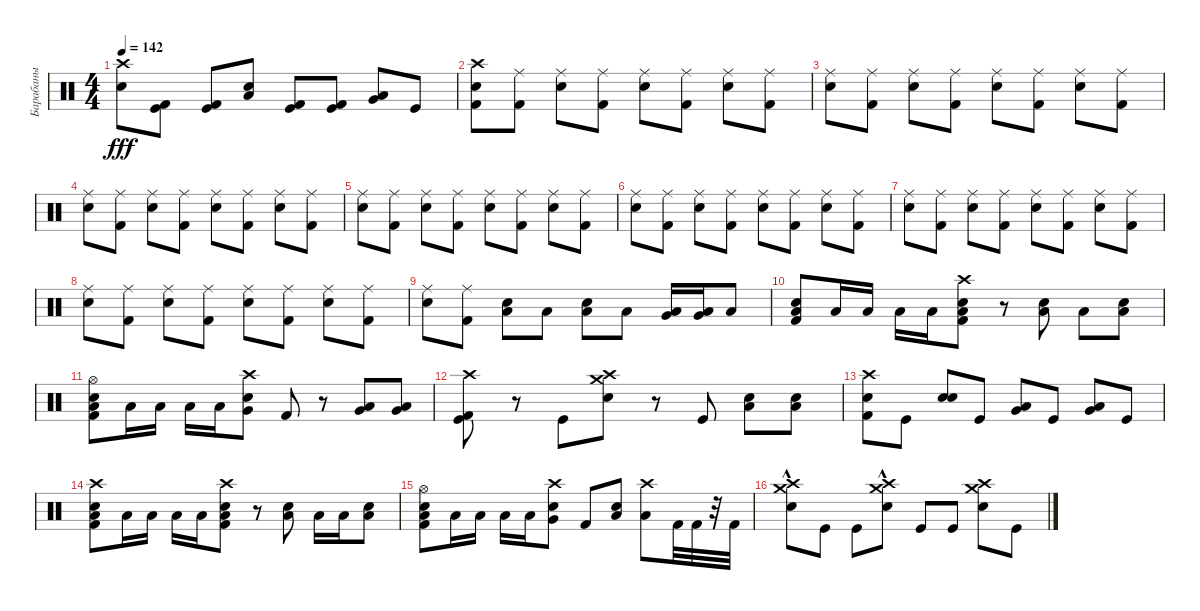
\track ("Барабаны" "Барабаны") {instrument percussion}
\staff {score}
\articulation defaults
\ts (4 4)
\tempo 142
\clef neutral
\ks c
("Crash high (hit)" "Snare (hit) 2").8{dy fff} ("Kick (hit) 2" "Kick (hit)").8 ("Kick (hit) 2" "Kick (hit)").8 ("Low Tom (hit)" "Electric Snare (hit)").8 ("Kick (hit)" "Kick (hit) 2").8 ("Kick (hit)" "Kick (hit) 2").8 ("Very Low Tom (hit)" "Low Tom (hit)").8 "Kick (hit)".8 |
("Snare (hit) 2" "Crash high (hit)" "Kick (hit) 2").8 ("Kick (hit) 2" "Ride (middle)").8 ("Snare (hit) 2" "Ride (middle)").8 ("Ride (middle)" "Kick (hit) 2").8 ("Ride (middle)" "Snare (hit) 2").8 ("Ride (middle)" "Kick (hit) 2").8 ("Ride (middle)" "Snare (hit) 2").8 ("Ride (middle)" "Kick (hit) 2").8 |
("Ride (middle)" "Snare (hit) 2").8 ("Ride (middle)" "Kick (hit) 2").8 ("Ride (middle)" "Snare (hit) 2").8 ("Ride (middle)" "Kick (hit) 2").8 ("Ride (middle)" "Snare (hit) 2").8 ("Ride (middle)" "Kick (hit) 2").8 ("Ride (middle)" "Snare (hit) 2").8 ("Ride (middle)" "Kick (hit) 2").8 |
("Ride (middle)" "Snare (hit) 2").8 ("Ride (middle)" "Kick (hit) 2").8 ("Ride (middle)" "Snare (hit) 2").8 ("Ride (middle)" "Kick (hit) 2").8 ("Ride (middle)" "Snare (hit) 2").8 ("Ride (middle)" "Kick (hit) 2").8 ("Ride (middle)" "Snare (hit) 2").8 ("Ride (middle)" "Kick (hit) 2").8 |
("Ride (middle)" "Snare (hit) 2").8 ("Ride (middle)" "Kick (hit) 2").8 ("Ride (middle)" "Snare (hit) 2").8 ("Ride (middle)" "Kick (hit) 2").8 ("Ride (middle)" "Snare (hit) 2").8 ("Ride (middle)" "Kick (hit) 2").8 ("Ride (middle)" "Snare (hit) 2").8 ("Ride (middle)" "Kick (hit) 2").8 |
("Ride (middle)" "Snare (hit) 2").8 ("Ride (middle)" "Kick (hit) 2").8 ("Ride (middle)" "Snare (hit) 2").8 ("Ride (middle)" "Kick (hit) 2").8 ("Ride (middle)" "Snare (hit) 2").8 ("Ride (middle)" "Kick (hit) 2").8 ("Ride (middle)" "Snare (hit) 2").8 ("Ride (middle)" "Kick (hit) 2").8 |
("Ride (middle)" "Snare (hit) 2").8 ("Ride (middle)" "Kick (hit) 2").8 ("Ride (middle)" "Snare (hit) 2").8 ("Ride (middle)" "Kick (hit) 2").8 ("Ride (middle)" "Snare (hit) 2").8 ("Ride (middle)" "Kick (hit) 2").8 ("Ride (middle)" "Snare (hit) 2").8 ("Ride (middle)" "Kick (hit) 2").8 |
("Ride (middle)" "Snare (hit) 2").8 ("Ride (middle)" "Kick (hit) 2").8 ("Ride (middle)" "Snare (hit) 2").8 ("Ride (middle)" "Kick (hit) 2").8 ("Ride (middle)" "Snare (hit) 2").8 ("Ride (middle)" "Kick (hit) 2").8 ("Ride (middle)" "Snare (hit) 2").8 ("Ride (middle)" "Kick (hit) 2").8 |
("Snare (hit) 2" "Ride (middle)").8 ("Ride (middle)" "Kick (hit) 2").8 ("Low Tom (hit)" "Snare (hit) 2").8 "Low Floor Tom (hit)".8 ("Low Tom (hit)" "Electric Snare (hit)").8 "Low Floor Tom (hit)".8 ("Very Low Tom (hit)" "Low Floor Tom (hit)").16 ("Very Low Tom (hit)" "Low Floor Tom (hit)").16 "Low Floor Tom (hit)".8 |
("Kick (hit) 2" "Low Tom (hit)" "Electric Snare (hit)").8 "Low Tom (hit)".16 "Low Tom (hit)".16 "Low Tom (hit)".16 "Low Tom (hit)".16 ("Kick (hit) 2" "Crash high (hit)" "Low Tom (hit)" "Electric Snare (hit)").8 r.8 ("Low Tom (hit)" "Electric Snare (hit)").8 "Low Floor Tom (hit)".8 ("Low Tom (hit)" "Electric Snare (hit)").8 |
("Kick (hit) 2" "Hi-Hat (open)" "Snare (hit) 2" "Low Tom (hit)").8 "Low Tom (hit)".16 "Low Tom (hit)".16 "Low Tom (hit)".16 "Low Tom (hit)".16 ("Very Low Tom (hit)" "Crash high (hit)" "Snare (hit) 2").8 "Kick (hit) 2".8 r.8 ("Low Tom (hit)" "Very Low Tom (hit)").8 ("Very Low Tom (hit)" "Low Floor Tom (hit)").8 |
("Kick (hit)" "Crash high (hit)" "Kick (hit) 2").8 r.8 "Kick (hit)".8 ("Crash high (hit)" "Crash medium (hit)" "Snare (hit) 2").8 r.8 "Kick (hit)".8 ("Low Tom (hit)" "Electric Snare (hit)").8 ("Low Tom (hit)" "Electric Snare (hit)").8 |
("Snare (hit) 2" "Crash high (hit)" "Kick (hit) 2").8 "Kick (hit)".8 ("Electric Snare (hit)" "Snare (hit) 2").8 "Kick (hit)".8 ("Low Tom (hit)" "Very Low Tom (hit)").8 "Kick (hit)".8 ("Low Tom (hit)" "Very Low Tom (hit)").8 "Kick (hit)".8 |
("Crash high (hit)" "Kick (hit) 2" "Low Tom (hit)" "Electric Snare (hit)").8 "Low Tom (hit)".16 "Low Tom (hit)".16 "Low Tom (hit)".16 "Low Tom (hit)".16 ("Kick (hit) 2" "Crash high (hit)" "Low Tom (hit)" "Electric Snare (hit)").8 r.8 ("Low Tom (hit)" "Electric Snare (hit)").8 "Low Floor Tom (hit)".16 "Low Floor Tom (hit)".16 ("Low Tom (hit)" "Electric Snare (hit)").8 |
("Kick (hit) 2" "Hi-Hat (open)" "Snare (hit) 2" "Low Tom (hit)").8 "Low Tom (hit)".16 "Low Tom (hit)".16 "Low Tom (hit)".16 "Low Tom (hit)".16 ("Very Low Tom (hit)" "Crash high (hit)" "Snare (hit) 2").8 "Kick (hit) 2".8 ("Snare (hit) 2" "Low Tom (hit)").8 ("Crash high (hit)" "Low Floor Tom (hit)").8 "Kick (hit) 2".32 "Kick (hit) 2".32 r.32 "Kick (hit) 2".32 |
("Crash high (hit)"{hac} "Crash medium (hit)"{hac} "Snare (hit) 2"{hac}).8 "Kick (hit)".8 "Kick (hit)".8 ("Crash medium (hit)"{hac} "Crash high (hit)"{hac} "Snare (hit) 2"{hac}).8 "Kick (hit)".8 "Kick (hit)".8 ("Crash medium (hit)" "Crash high (hit)" "Snare (hit) 2").8 "Kick (hit)".8
